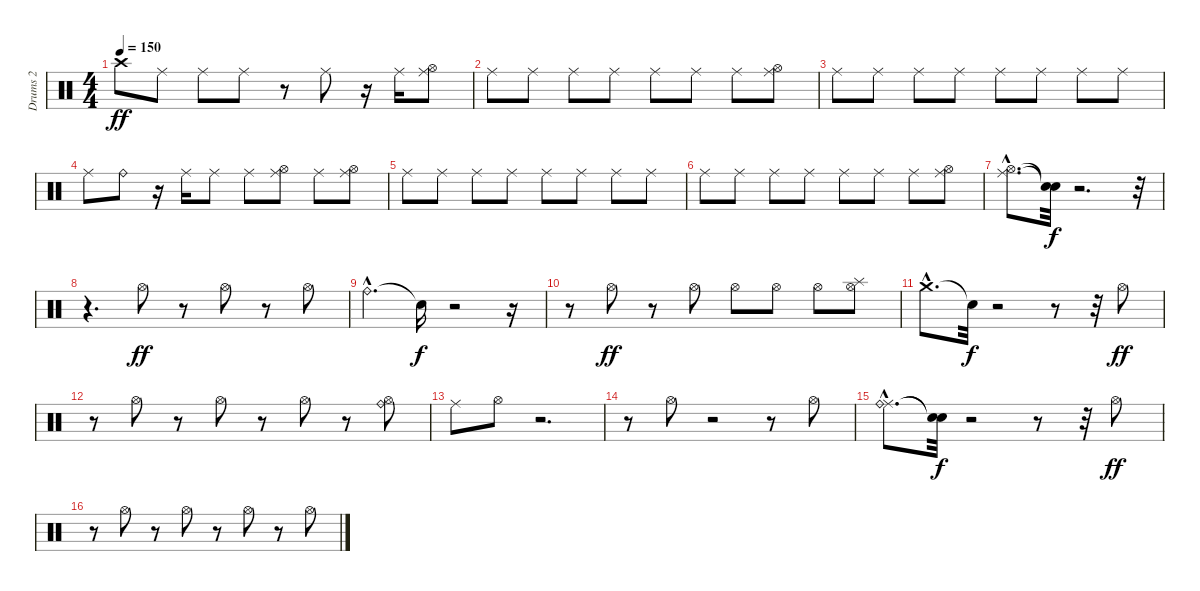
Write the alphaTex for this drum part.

\track ("Drums 2" "Drums 2") {instrument percussion}
\staff {score}
\articulation defaults
\ts (4 4)
\tempo 150
\clef neutral
\ks c "Crash high (hit)".8{dy ff} "Ride (middle)".8 "Ride (middle)".8 "Ride (middle)".8
r.8 "Ride (middle)".8 r.16 "Ride (middle)".16 ("Hi-Hat (open)" "Ride (middle)").8 |
"Ride (middle)".8 "Ride (middle)".8 "Ride (middle)".8 "Ride (middle)".8 "Ride (middle)".8 "Ride (middle)".8 "Ride (middle)".8 ("Hi-Hat (open)" "Ride (middle)").8 |
"Ride (middle)".8 "Ride (middle)".8 "Ride (middle)".8 "Ride (middle)".8 "Ride (middle)".8 "Ride (middle)".8 "Ride (middle)".8 "Ride (middle)".8 |
"Ride (middle)".8 "Ride (bell)".8 r.16 "Ride (middle)".16 "Ride (middle)".8 "Ride (middle)".8 ("Hi-Hat (open)" "Ride (middle)").8 "Ride (middle)".8 ("Hi-Hat (open)" "Ride (middle)").8 |
"Ride (middle)".8 "Ride (middle)".8 "Ride (middle)".8 "Ride (middle)".8 "Ride (middle)".8 "Ride (middle)".8 "Ride (middle)".8 "Ride (middle)".8 |
"Ride (middle)".8 "Ride (middle)".8 "Ride (middle)".8 "Ride (middle)".8 "Ride (middle)".8 "Ride (middle)".8 "Ride (middle)".8 ("Hi-Hat (open)" "Ride (middle)").8 |
("Hi-Hat (open)"{hac} "Ride (middle)"{hac}).8{d} ("Snare (hit)"{t} "Snare (hit)"{t}).32{dy f} r.2{d} r.32 |
r.4{d} "Hi-Hat (open)".8{dy ff} r.8 "Hi-Hat (open)".8 r.8 "Hi-Hat (open)".8 |
"Ride (bell)"{hac}.4{d} "Snare (hit)"{t}.16{dy f} r.2 r.16 |
r.8 "Hi-Hat (open)".8{dy ff} r.8 "Hi-Hat (open)".8 "Hi-Hat (open)".8 "Hi-Hat (open)".8 "Hi-Hat (open)".8 ("Hi-Hat (open)" "Splash (hit)").8 |
"Crash medium (hit)"{hac}.8{d} "Snare (hit)"{t}.32{dy f} r.2 r.8 r.32 "Hi-Hat (open)".8{dy ff} |
r.8 "Hi-Hat (open)".8 r.8 "Hi-Hat (open)".8 r.8 "Hi-Hat (open)".8 r.8 ("Hi-Hat (open)" "Ride (bell)").8 |
"Ride (middle)".8 "Hi-Hat (open)".8 r.2{d} |
r.8 "Hi-Hat (open)".8 r.2 r.8 "Hi-Hat (open)".8 |
("Ride (middle)"{hac} "Ride (bell)"{hac}).8{d} ("Snare (hit)"{t} "Snare (hit)"{t}).32{dy f} r.2 r.8 r.32 "Hi-Hat (open)".8{dy ff} |
r.8 "Hi-Hat (open)".8 r.8 "Hi-Hat (open)".8 r.8 "Hi-Hat (open)".8 r.8 "Hi-Hat (open)".8
